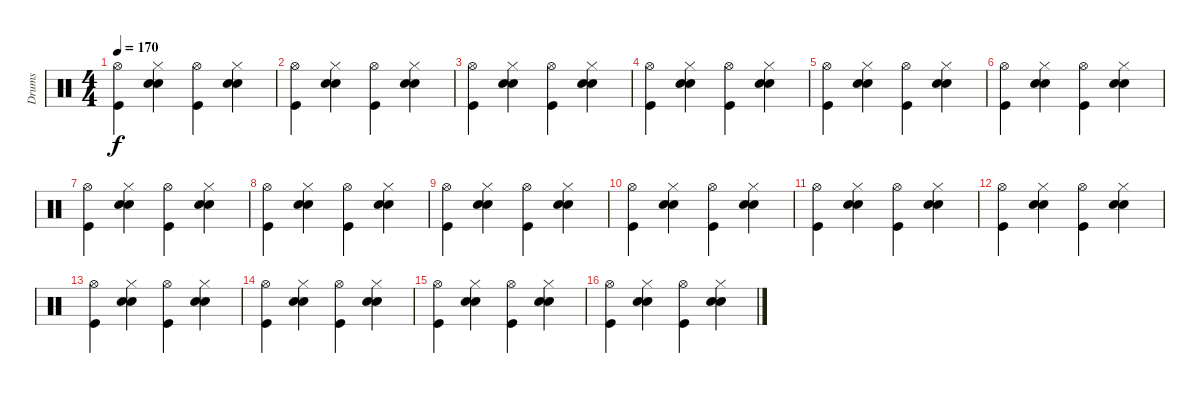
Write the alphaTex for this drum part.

\track ("Drums" "Drums") {instrument percussion}
\staff {score}
\articulation defaults
\ts (4 4)
\tempo 170
\clef neutral
\ks c
("Hi-Hat (open)" "Kick (hit)").4{dy f} ("Hi-Hat (closed)" "Snare (hit) 2" "Electric Snare (hit)").4 ("Hi-Hat (open)" "Kick (hit)").4 ("Hi-Hat (closed)" "Snare (hit) 2" "Electric Snare (hit)").4 |
("Hi-Hat (open)" "Kick (hit)").4 ("Hi-Hat (closed)" "Snare (hit) 2" "Electric Snare (hit)").4 ("Hi-Hat (open)" "Kick (hit)").4 ("Hi-Hat (closed)" "Snare (hit) 2" "Electric Snare (hit)").4 |
("Hi-Hat (open)" "Kick (hit)").4 ("Hi-Hat (closed)" "Snare (hit) 2" "Electric Snare (hit)").4 ("Hi-Hat (open)" "Kick (hit)").4 ("Hi-Hat (closed)" "Snare (hit) 2" "Electric Snare (hit)").4 |
("Hi-Hat (open)" "Kick (hit)").4 ("Hi-Hat (closed)" "Snare (hit) 2" "Electric Snare (hit)").4 ("Hi-Hat (open)" "Kick (hit)").4 ("Hi-Hat (closed)" "Snare (hit) 2" "Electric Snare (hit)").4 |
("Hi-Hat (open)" "Kick (hit)").4 ("Hi-Hat (closed)" "Snare (hit) 2" "Electric Snare (hit)").4 ("Hi-Hat (open)" "Kick (hit)").4 ("Hi-Hat (closed)" "Snare (hit) 2" "Electric Snare (hit)").4 |
("Hi-Hat (open)" "Kick (hit)").4 ("Hi-Hat (closed)" "Snare (hit) 2" "Electric Snare (hit)").4 ("Hi-Hat (open)" "Kick (hit)").4 ("Hi-Hat (closed)" "Snare (hit) 2" "Electric Snare (hit)").4 |
("Hi-Hat (open)" "Kick (hit)").4 ("Hi-Hat (closed)" "Snare (hit) 2" "Electric Snare (hit)").4 ("Hi-Hat (open)" "Kick (hit)").4 ("Hi-Hat (closed)" "Snare (hit) 2" "Electric Snare (hit)").4 |
("Hi-Hat (open)" "Kick (hit)").4 ("Hi-Hat (closed)" "Snare (hit) 2" "Electric Snare (hit)").4 ("Hi-Hat (open)" "Kick (hit)").4 ("Hi-Hat (closed)" "Snare (hit) 2" "Electric Snare (hit)").4 |
("Hi-Hat (open)" "Kick (hit)").4 ("Hi-Hat (closed)" "Snare (hit) 2" "Electric Snare (hit)").4 ("Hi-Hat (open)" "Kick (hit)").4 ("Hi-Hat (closed)" "Snare (hit) 2" "Electric Snare (hit)").4 |
("Hi-Hat (open)" "Kick (hit)").4 ("Hi-Hat (closed)" "Snare (hit) 2" "Electric Snare (hit)").4 ("Hi-Hat (open)" "Kick (hit)").4 ("Hi-Hat (closed)" "Snare (hit) 2" "Electric Snare (hit)").4 |
("Hi-Hat (open)" "Kick (hit)").4 ("Hi-Hat (closed)" "Snare (hit) 2" "Electric Snare (hit)").4 ("Hi-Hat (open)" "Kick (hit)").4 ("Hi-Hat (closed)" "Snare (hit) 2" "Electric Snare (hit)").4 |
("Hi-Hat (open)" "Kick (hit)").4 ("Hi-Hat (closed)" "Snare (hit) 2" "Electric Snare (hit)").4 ("Hi-Hat (open)" "Kick (hit)").4 ("Hi-Hat (closed)" "Snare (hit) 2" "Electric Snare (hit)").4 |
("Hi-Hat (open)" "Kick (hit)").4 ("Hi-Hat (closed)" "Snare (hit) 2" "Electric Snare (hit)").4 ("Hi-Hat (open)" "Kick (hit)").4 ("Hi-Hat (closed)" "Snare (hit) 2" "Electric Snare (hit)").4 |
("Hi-Hat (open)" "Kick (hit)").4 ("Hi-Hat (closed)" "Snare (hit) 2" "Electric Snare (hit)").4 ("Hi-Hat (open)" "Kick (hit)").4 ("Hi-Hat (closed)" "Snare (hit) 2" "Electric Snare (hit)").4 |
("Hi-Hat (open)" "Kick (hit)").4 ("Hi-Hat (closed)" "Snare (hit) 2" "Electric Snare (hit)").4 ("Hi-Hat (open)" "Kick (hit)").4 ("Hi-Hat (closed)" "Snare (hit) 2" "Electric Snare (hit)").4 |
("Hi-Hat (open)" "Kick (hit)").4 ("Hi-Hat (closed)" "Snare (hit) 2" "Electric Snare (hit)").4 ("Hi-Hat (open)" "Kick (hit)").4 ("Hi-Hat (closed)" "Snare (hit) 2" "Electric Snare (hit)").4
